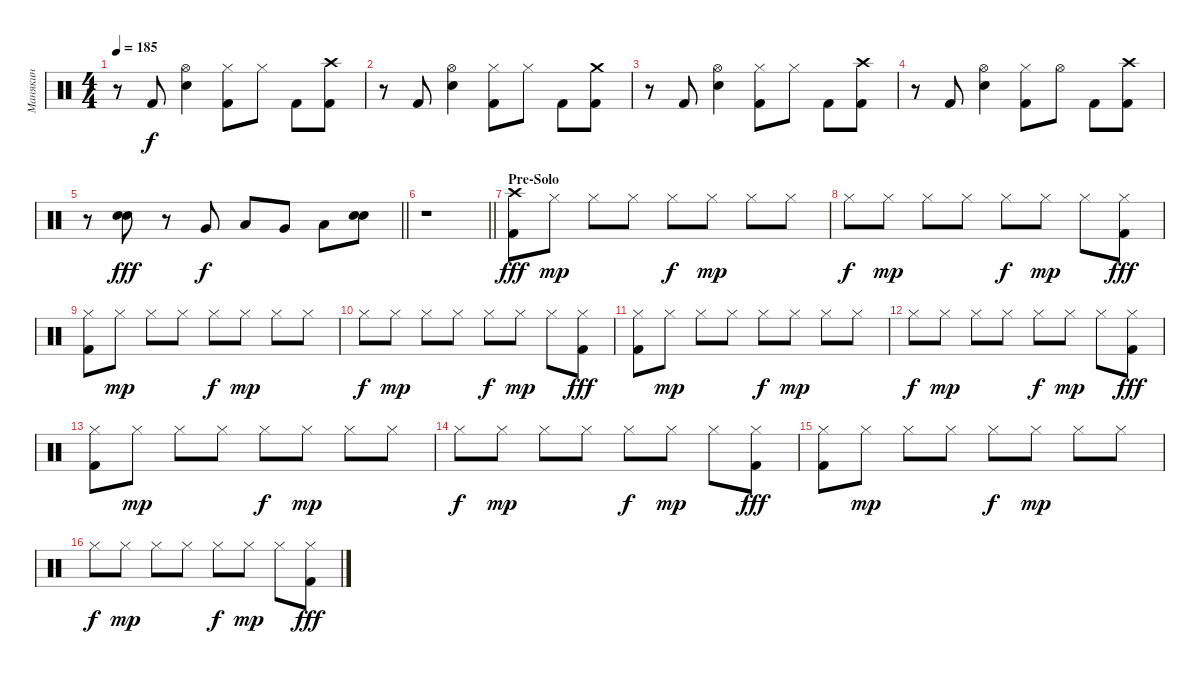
\track ("Манякин" "Манякин") {instrument percussion}
\staff {score}
\articulation defaults
\ts (4 4)
\tempo 185
\clef neutral
\ks c
r.8{dy f} "Kick (hit) 2".8 ("Hi-Hat (open)" "Electric Snare (hit)").4 ("Hi-Hat (closed)" "Kick (hit) 2").8 "Hi-Hat (closed)".8 "Kick (hit) 2".8 ("Crash high (hit)" "Kick (hit) 2").8 |
r.8 "Kick (hit) 2".8 ("Hi-Hat (open)" "Electric Snare (hit)").4 ("Hi-Hat (closed)" "Kick (hit) 2").8 "Hi-Hat (closed)".8 "Kick (hit) 2".8 ("Crash medium (hit)" "Kick (hit) 2").8 |
r.8 "Kick (hit) 2".8 ("Hi-Hat (open)" "Electric Snare (hit)").4 ("Hi-Hat (closed)" "Kick (hit) 2").8 "Hi-Hat (closed)".8 "Kick (hit) 2".8 ("Crash high (hit)" "Kick (hit) 2").8 |
r.8 "Kick (hit) 2".8 ("Hi-Hat (open)" "Electric Snare (hit)").4 ("Hi-Hat (closed)" "Kick (hit) 2").8 "Hi-Hat (open)".8 "Kick (hit) 2".8 ("Crash high (hit)" "Kick (hit) 2").8 |
\barLineRight lightlight
r.8 ("Electric Snare (hit)" "Electric Snare (hit)").8{dy fff} r.8 "Very Low Tom (hit)".8{dy f} "Low Tom (hit)".8 "Very Low Tom (hit)".8 "Low Floor Tom (hit)".8 ("Electric Snare (hit)" "Electric Snare (hit)").8 |
\barLineRight lightlight
r.1 |
\section ("" "Pre-Solo")
("Crash high (hit)" "Kick (hit) 2").8{dy fff} "Hi-Hat (closed)".8{dy mp} "Hi-Hat (closed)".8 "Hi-Hat (closed)".8 "Hi-Hat (closed)".8{dy f} "Hi-Hat (closed)".8{dy mp} "Hi-Hat (closed)".8 "Hi-Hat (closed)".8 |
"Hi-Hat (closed)".8{dy f} "Hi-Hat (closed)".8{dy mp} "Hi-Hat (closed)".8 "Hi-Hat (closed)".8 "Hi-Hat (closed)".8{dy f} "Hi-Hat (closed)".8{dy mp} "Hi-Hat (closed)".8 ("Hi-Hat (closed)" "Kick (hit) 2").8{dy fff} |
("Hi-Hat (closed)" "Kick (hit) 2").8 "Hi-Hat (closed)".8{dy mp} "Hi-Hat (closed)".8 "Hi-Hat (closed)".8 "Hi-Hat (closed)".8{dy f} "Hi-Hat (closed)".8{dy mp} "Hi-Hat (closed)".8 "Hi-Hat (closed)".8 |
"Hi-Hat (closed)".8{dy f} "Hi-Hat (closed)".8{dy mp} "Hi-Hat (closed)".8 "Hi-Hat (closed)".8 "Hi-Hat (closed)".8{dy f} "Hi-Hat (closed)".8{dy mp} "Hi-Hat (closed)".8 ("Hi-Hat (closed)" "Kick (hit) 2").8{dy fff} |
("Hi-Hat (closed)" "Kick (hit) 2").8 "Hi-Hat (closed)".8{dy mp} "Hi-Hat (closed)".8 "Hi-Hat (closed)".8 "Hi-Hat (closed)".8{dy f} "Hi-Hat (closed)".8{dy mp} "Hi-Hat (closed)".8 "Hi-Hat (closed)".8 |
"Hi-Hat (closed)".8{dy f} "Hi-Hat (closed)".8{dy mp} "Hi-Hat (closed)".8 "Hi-Hat (closed)".8 "Hi-Hat (closed)".8{dy f} "Hi-Hat (closed)".8{dy mp} "Hi-Hat (closed)".8 ("Hi-Hat (closed)" "Kick (hit) 2").8{dy fff} |
("Hi-Hat (closed)" "Kick (hit) 2").8 "Hi-Hat (closed)".8{dy mp} "Hi-Hat (closed)".8 "Hi-Hat (closed)".8 "Hi-Hat (closed)".8{dy f} "Hi-Hat (closed)".8{dy mp} "Hi-Hat (closed)".8 "Hi-Hat (closed)".8 |
"Hi-Hat (closed)".8{dy f} "Hi-Hat (closed)".8{dy mp} "Hi-Hat (closed)".8 "Hi-Hat (closed)".8 "Hi-Hat (closed)".8{dy f} "Hi-Hat (closed)".8{dy mp} "Hi-Hat (closed)".8 ("Hi-Hat (closed)" "Kick (hit) 2").8{dy fff} |
("Hi-Hat (closed)" "Kick (hit) 2").8 "Hi-Hat (closed)".8{dy mp} "Hi-Hat (closed)".8 "Hi-Hat (closed)".8 "Hi-Hat (closed)".8{dy f} "Hi-Hat (closed)".8{dy mp} "Hi-Hat (closed)".8 "Hi-Hat (closed)".8 |
"Hi-Hat (closed)".8{dy f} "Hi-Hat (closed)".8{dy mp} "Hi-Hat (closed)".8 "Hi-Hat (closed)".8 "Hi-Hat (closed)".8{dy f} "Hi-Hat (closed)".8{dy mp} "Hi-Hat (closed)".8 ("Hi-Hat (closed)" "Kick (hit) 2").8{dy fff}
